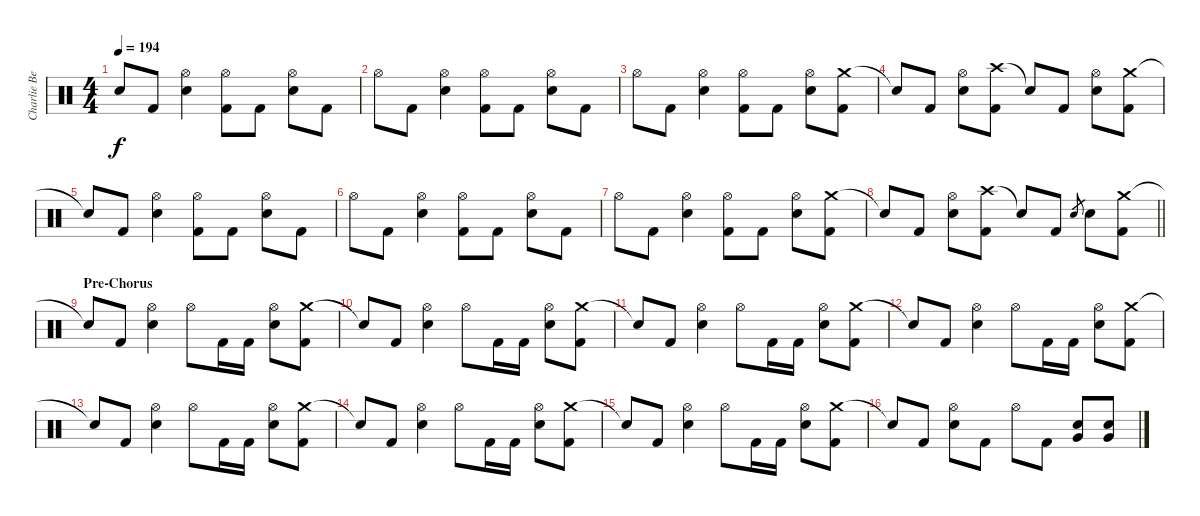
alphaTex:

\track ("Charlie Benate " "Charlie Be") {instrument percussion}
\staff {score}
\articulation defaults
\ts (4 4)
\tempo 194
\clef neutral
\ks c "Snare (hit)"{t}.8{dy f} "Kick (hit) 2".8
("Hi-Hat (open)" "Snare (hit) 2").4 ("Hi-Hat (open)" "Kick (hit) 2").8 "Kick (hit) 2".8 ("Hi-Hat (open)" "Snare (hit) 2").8 "Kick (hit) 2".8 |
"Hi-Hat (open)".8 "Kick (hit) 2".8 ("Hi-Hat (open)" "Snare (hit) 2").4 ("Hi-Hat (open)" "Kick (hit) 2").8 "Kick (hit) 2".8 ("Hi-Hat (open)" "Snare (hit) 2").8 "Kick (hit) 2".8 |
"Hi-Hat (open)".8 "Kick (hit) 2".8 ("Hi-Hat (open)" "Snare (hit) 2").4 ("Hi-Hat (open)" "Kick (hit) 2").8 "Kick (hit) 2".8 ("Hi-Hat (open)" "Snare (hit) 2").8 ("Crash medium (hit)" "Kick (hit) 2").8 |
"Snare (hit)"{t}.8 "Kick (hit) 2".8 ("Hi-Hat (open)" "Snare (hit) 2").8 ("Crash high (hit)" "Kick (hit) 2").8 "Snare (hit)"{t}.8 "Kick (hit) 2".8 ("Hi-Hat (open)" "Snare (hit) 2").8 ("Crash medium (hit)" "Kick (hit) 2").8 |
"Snare (hit)"{t}.8 "Kick (hit) 2".8 ("Hi-Hat (open)" "Snare (hit) 2").4 ("Hi-Hat (open)" "Kick (hit) 2").8 "Kick (hit) 2".8 ("Hi-Hat (open)" "Snare (hit) 2").8 "Kick (hit) 2".8 |
"Hi-Hat (open)".8 "Kick (hit) 2".8 ("Hi-Hat (open)" "Snare (hit) 2").4 ("Hi-Hat (open)" "Kick (hit) 2").8 "Kick (hit) 2".8 ("Hi-Hat (open)" "Snare (hit) 2").8 "Kick (hit) 2".8 |
"Hi-Hat (open)".8 "Kick (hit) 2".8 ("Hi-Hat (open)" "Snare (hit) 2").4 ("Hi-Hat (open)" "Kick (hit) 2").8 "Kick (hit) 2".8 ("Hi-Hat (open)" "Snare (hit) 2").8 ("Crash medium (hit)" "Kick (hit) 2").8 |
\barLineRight lightlight "Snare (hit)"{t}.8 "Kick (hit) 2".8
("Hi-Hat (open)" "Snare (hit) 2").8 ("Crash high (hit)" "Kick (hit) 2").8 "Snare (hit)"{t}.8 "Kick (hit) 2".8 "Snare (hit) 2".8{gr} "Snare (hit) 2".8 ("Crash medium (hit)" "Kick (hit) 2").8 |
\section ("" "Pre-Chorus")
"Snare (hit)"{t}.8 "Kick (hit) 2".8 ("Hi-Hat (open)" "Snare (hit) 2").4 "Hi-Hat (open)".8 "Kick (hit) 2".16 "Kick (hit) 2".16 ("Hi-Hat (open)" "Snare (hit) 2").8 ("Crash medium (hit)" "Kick (hit) 2").8 |
"Snare (hit)"{t}.8 "Kick (hit) 2".8 ("Hi-Hat (open)" "Snare (hit) 2").4 "Hi-Hat (open)".8 "Kick (hit) 2".16 "Kick (hit) 2".16 ("Hi-Hat (open)" "Snare (hit) 2").8 ("Crash medium (hit)" "Kick (hit) 2").8 |
"Snare (hit)"{t}.8 "Kick (hit) 2".8 ("Hi-Hat (open)" "Snare (hit) 2").4 "Hi-Hat (open)".8 "Kick (hit) 2".16 "Kick (hit) 2".16 ("Hi-Hat (open)" "Snare (hit) 2").8 ("Crash medium (hit)" "Kick (hit) 2").8 |
"Snare (hit)"{t}.8 "Kick (hit) 2".8 ("Hi-Hat (open)" "Snare (hit) 2").4 "Hi-Hat (open)".8 "Kick (hit) 2".16 "Kick (hit) 2".16 ("Hi-Hat (open)" "Snare (hit) 2").8 ("Crash medium (hit)" "Kick (hit) 2").8 |
"Snare (hit)"{t}.8 "Kick (hit) 2".8 ("Hi-Hat (open)" "Snare (hit) 2").4 "Hi-Hat (open)".8 "Kick (hit) 2".16 "Kick (hit) 2".16 ("Hi-Hat (open)" "Snare (hit) 2").8 ("Crash medium (hit)" "Kick (hit) 2").8 |
"Snare (hit)"{t}.8 "Kick (hit) 2".8 ("Hi-Hat (open)" "Snare (hit) 2").4 "Hi-Hat (open)".8 "Kick (hit) 2".16 "Kick (hit) 2".16 ("Hi-Hat (open)" "Snare (hit) 2").8 ("Crash medium (hit)" "Kick (hit) 2").8 |
"Snare (hit)"{t}.8 "Kick (hit) 2".8 ("Hi-Hat (open)" "Snare (hit) 2").4 "Hi-Hat (open)".8 "Kick (hit) 2".16 "Kick (hit) 2".16 ("Hi-Hat (open)" "Snare (hit) 2").8 ("Crash medium (hit)" "Kick (hit) 2").8 |
"Snare (hit)"{t}.8 "Kick (hit) 2".8 ("Hi-Hat (open)" "Snare (hit) 2").8 "Kick (hit) 2".8 "Hi-Hat (open)".8 "Kick (hit) 2".8 ("Very Low Tom (hit)" "Snare (hit) 2").8 ("Very Low Tom (hit)" "Snare (hit) 2").8
